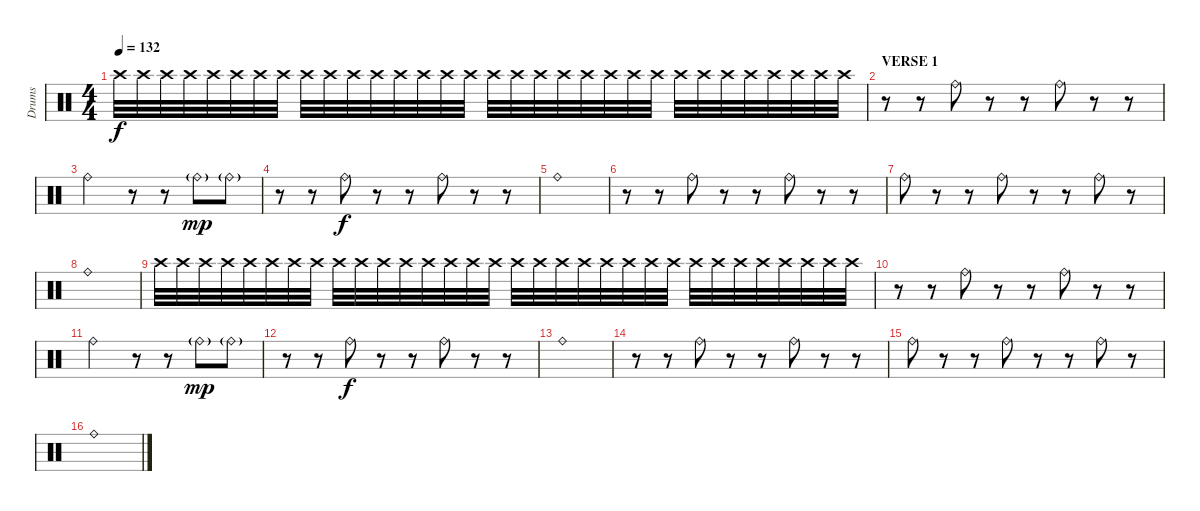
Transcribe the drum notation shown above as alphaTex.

\track ("Drums" "Drums") {instrument percussion}
\staff {score}
\articulation defaults
\ts (4 4)
\tempo 132
\clef neutral
\ks c "Crash high (hit)".32{dy f volume 4 balance 8} "Crash high (hit)".32 "Crash high (hit)".32 "Crash high (hit)".32 "Crash high (hit)".32 "Crash high (hit)".32 "Crash high (hit)".32 "Crash high (hit)".32 "Crash high (hit)".32 "Crash high (hit)".32 "Crash high (hit)".32 "Crash high (hit)".32 "Crash high (hit)".32 "Crash high (hit)".32 "Crash high (hit)".32 "Crash high (hit)".32 "Crash high (hit)".32 "Crash high (hit)".32 "Crash high (hit)".32 "Crash high (hit)".32 "Crash high (hit)".32 "Crash high (hit)".32 "Crash high (hit)".32 "Crash high (hit)".32 "Crash high (hit)".32 "Crash high (hit)".32 "Crash high (hit)".32 "Crash high (hit)".32 "Crash high (hit)".32 "Crash high (hit)".32 "Crash high (hit)".32 "Crash high (hit)".32
|
\section ("" "VERSE 1")
r.8 r.8 "Ride (bell)".8{volume 10 balance 16} r.8 r.8 "Ride (bell)".8{balance 8} r.8 r.8 |
"Ride (bell)".2{balance 0} r.8 r.8 "Ride (bell)"{g}.8{dy mp} "Ride (bell)"{g}.8 |
r.8 r.8 "Ride (bell)".8{dy f balance 16} r.8 r.8 "Ride (bell)".8{balance 8} r.8 r.8 |
"Ride (bell)".1{balance 0} |
r.8 r.8 "Ride (bell)".8{balance 12} r.8 r.8 "Ride (bell)".8{balance 16} r.8 r.8 |
"Ride (bell)".8{balance 12} r.8 r.8 "Ride (bell)".8{balance 8} r.8 r.8 "Ride (bell)".8{balance 4} r.8 |
"Ride (bell)".1{volume 0 balance 0} |
"Crash high (hit)".32{volume 4 balance 8} "Crash high (hit)".32 "Crash high (hit)".32 "Crash high (hit)".32 "Crash high (hit)".32 "Crash high (hit)".32 "Crash high (hit)".32 "Crash high (hit)".32 "Crash high (hit)".32 "Crash high (hit)".32 "Crash high (hit)".32 "Crash high (hit)".32 "Crash high (hit)".32 "Crash high (hit)".32 "Crash high (hit)".32 "Crash high (hit)".32 "Crash high (hit)".32 "Crash high (hit)".32 "Crash high (hit)".32 "Crash high (hit)".32 "Crash high (hit)".32 "Crash high (hit)".32 "Crash high (hit)".32 "Crash high (hit)".32 "Crash high (hit)".32 "Crash high (hit)".32 "Crash high (hit)".32 "Crash high (hit)".32 "Crash high (hit)".32 "Crash high (hit)".32 "Crash high (hit)".32 "Crash high (hit)".32 |
r.8 r.8 "Ride (bell)".8{volume 10 balance 16} r.8 r.8 "Ride (bell)".8{balance 8} r.8 r.8 |
"Ride (bell)".2{balance 0} r.8 r.8 "Ride (bell)"{g}.8{dy mp} "Ride (bell)"{g}.8 |
r.8 r.8 "Ride (bell)".8{dy f balance 16} r.8 r.8 "Ride (bell)".8{balance 8} r.8 r.8 |
"Ride (bell)".1{balance 0} |
r.8 r.8 "Ride (bell)".8{balance 12} r.8 r.8 "Ride (bell)".8{balance 16} r.8 r.8 |
"Ride (bell)".8{balance 12} r.8 r.8 "Ride (bell)".8{balance 8} r.8 r.8 "Ride (bell)".8{balance 4} r.8 |
"Ride (bell)".1{volume 0 balance 0}
